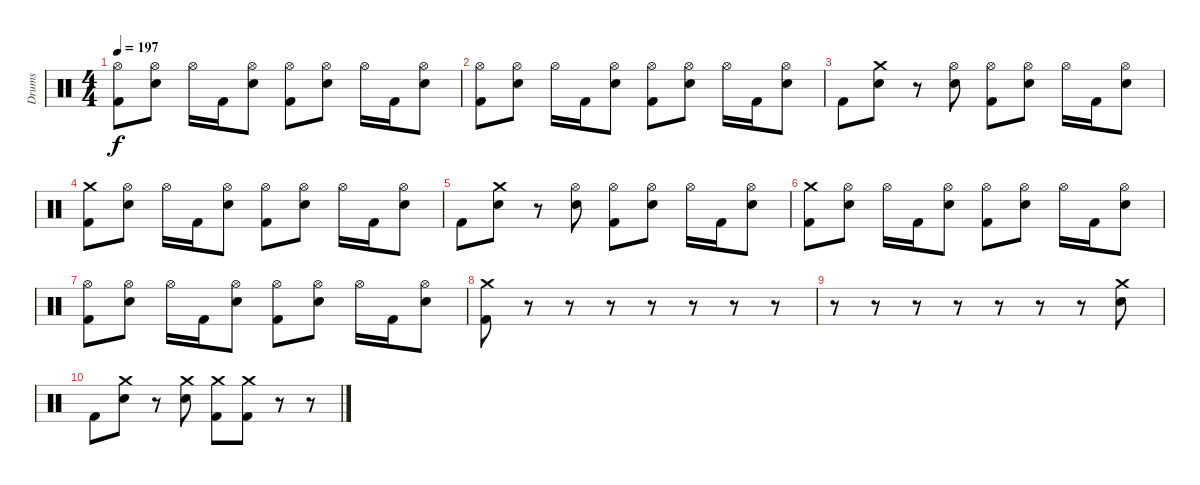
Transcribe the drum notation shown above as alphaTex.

\track ("Drums" "Drums") {instrument percussion}
\staff {score}
\articulation defaults
\ts (4 4)
\tempo 197
\clef neutral
\ks c
("Hi-Hat (open)" "Kick (hit) 2").8{dy f} ("Hi-Hat (open)" "Electric Snare (hit)").8 "Hi-Hat (open)".16 "Kick (hit) 2".16 ("Hi-Hat (open)" "Electric Snare (hit)").8 ("Hi-Hat (open)" "Kick (hit) 2").8 ("Hi-Hat (open)" "Electric Snare (hit)").8 "Hi-Hat (open)".16 "Kick (hit) 2".16 ("Hi-Hat (open)" "Electric Snare (hit)").8 |
("Hi-Hat (open)" "Kick (hit) 2").8 ("Hi-Hat (open)" "Electric Snare (hit)").8 "Hi-Hat (open)".16 "Kick (hit) 2".16 ("Hi-Hat (open)" "Electric Snare (hit)").8 ("Hi-Hat (open)" "Kick (hit) 2").8 ("Hi-Hat (open)" "Electric Snare (hit)").8 "Hi-Hat (open)".16 "Kick (hit) 2".16 ("Hi-Hat (open)" "Electric Snare (hit)").8 |
"Kick (hit) 2".8 ("Crash medium (hit)" "Electric Snare (hit)").8 r.8 ("Hi-Hat (open)" "Electric Snare (hit)").8 ("Hi-Hat (open)" "Kick (hit) 2").8 ("Hi-Hat (open)" "Electric Snare (hit)").8 "Hi-Hat (open)".16 "Kick (hit) 2".16 ("Hi-Hat (open)" "Electric Snare (hit)").8 |
("Crash medium (hit)" "Kick (hit) 2").8 ("Hi-Hat (open)" "Electric Snare (hit)").8 "Hi-Hat (open)".16 "Kick (hit) 2".16 ("Hi-Hat (open)" "Electric Snare (hit)").8 ("Hi-Hat (open)" "Kick (hit) 2").8 ("Hi-Hat (open)" "Electric Snare (hit)").8 "Hi-Hat (open)".16 "Kick (hit) 2".16 ("Hi-Hat (open)" "Electric Snare (hit)").8 |
"Kick (hit) 2".8 ("Crash medium (hit)" "Electric Snare (hit)").8 r.8 ("Hi-Hat (open)" "Electric Snare (hit)").8 ("Hi-Hat (open)" "Kick (hit) 2").8 ("Hi-Hat (open)" "Electric Snare (hit)").8 "Hi-Hat (open)".16 "Kick (hit) 2".16 ("Hi-Hat (open)" "Electric Snare (hit)").8 |
("Crash medium (hit)" "Kick (hit) 2").8 ("Hi-Hat (open)" "Electric Snare (hit)").8 "Hi-Hat (open)".16 "Kick (hit) 2".16 ("Hi-Hat (open)" "Electric Snare (hit)").8 ("Hi-Hat (open)" "Kick (hit) 2").8 ("Hi-Hat (open)" "Electric Snare (hit)").8 "Hi-Hat (open)".16 "Kick (hit) 2".16 ("Hi-Hat (open)" "Electric Snare (hit)").8 |
("Hi-Hat (open)" "Kick (hit) 2").8 ("Hi-Hat (open)" "Electric Snare (hit)").8 "Hi-Hat (open)".16 "Kick (hit) 2".16 ("Hi-Hat (open)" "Electric Snare (hit)").8 ("Hi-Hat (open)" "Kick (hit) 2").8 ("Hi-Hat (open)" "Electric Snare (hit)").8 "Hi-Hat (open)".16 "Kick (hit) 2".16 ("Hi-Hat (open)" "Electric Snare (hit)").8 |
("Crash medium (hit)" "Kick (hit) 2").8 r.8 r.8 r.8 r.8 r.8 r.8 r.8 |
r.8 r.8 r.8 r.8 r.8 r.8 r.8 ("Crash medium (hit)" "Electric Snare (hit)").8 |
"Kick (hit) 2".8 ("Crash medium (hit)" "Electric Snare (hit)").8 r.8 ("Crash medium (hit)" "Electric Snare (hit)").8 ("Crash medium (hit)" "Kick (hit) 2").8 ("Crash medium (hit)" "Kick (hit) 2").8 r.8 r.8
